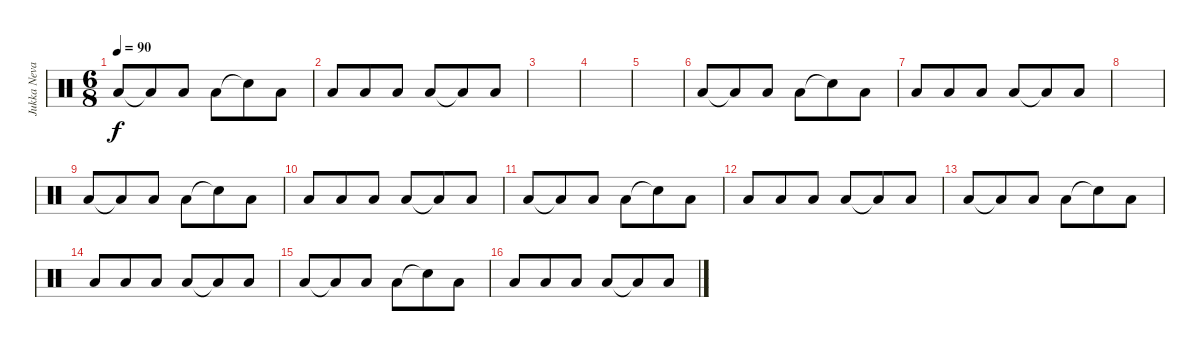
\track ("Jukka Nevalainen" "Jukka Neva") {instrument percussion}
\staff {score}
\articulation defaults
\ts (6 8)
\tempo 90
\clef neutral
\ks c "Low Floor Tom (hit)".8{dy f} "Low Floor Tom (hit)"{t}.8 "Low Floor Tom (hit)".8 "Low Floor Tom (hit)".8 "Snare (hit)"{t}.8 "Low Floor Tom (hit)".8
|
"Low Floor Tom (hit)".8 "Low Floor Tom (hit)".8 "Low Floor Tom (hit)".8 "Low Floor Tom (hit)".8 "Low Floor Tom (hit)"{t}.8 "Low Floor Tom (hit)".8 |
|
|
|
"Low Floor Tom (hit)".8 "Low Floor Tom (hit)"{t}.8 "Low Floor Tom (hit)".8 "Low Floor Tom (hit)".8 "Snare (hit)"{t}.8 "Low Floor Tom (hit)".8 |
"Low Floor Tom (hit)".8 "Low Floor Tom (hit)".8 "Low Floor Tom (hit)".8 "Low Floor Tom (hit)".8 "Low Floor Tom (hit)"{t}.8 "Low Floor Tom (hit)".8 |
|
"Low Floor Tom (hit)".8 "Low Floor Tom (hit)"{t}.8 "Low Floor Tom (hit)".8 "Low Floor Tom (hit)".8 "Snare (hit)"{t}.8 "Low Floor Tom (hit)".8 |
"Low Floor Tom (hit)".8 "Low Floor Tom (hit)".8 "Low Floor Tom (hit)".8 "Low Floor Tom (hit)".8 "Low Floor Tom (hit)"{t}.8 "Low Floor Tom (hit)".8 |
"Low Floor Tom (hit)".8 "Low Floor Tom (hit)"{t}.8 "Low Floor Tom (hit)".8 "Low Floor Tom (hit)".8 "Snare (hit)"{t}.8 "Low Floor Tom (hit)".8 |
"Low Floor Tom (hit)".8 "Low Floor Tom (hit)".8 "Low Floor Tom (hit)".8 "Low Floor Tom (hit)".8 "Low Floor Tom (hit)"{t}.8 "Low Floor Tom (hit)".8 |
"Low Floor Tom (hit)".8 "Low Floor Tom (hit)"{t}.8 "Low Floor Tom (hit)".8 "Low Floor Tom (hit)".8 "Snare (hit)"{t}.8 "Low Floor Tom (hit)".8 |
"Low Floor Tom (hit)".8 "Low Floor Tom (hit)".8 "Low Floor Tom (hit)".8 "Low Floor Tom (hit)".8 "Low Floor Tom (hit)"{t}.8 "Low Floor Tom (hit)".8 |
"Low Floor Tom (hit)".8 "Low Floor Tom (hit)"{t}.8 "Low Floor Tom (hit)".8 "Low Floor Tom (hit)".8 "Snare (hit)"{t}.8 "Low Floor Tom (hit)".8 |
"Low Floor Tom (hit)".8 "Low Floor Tom (hit)".8 "Low Floor Tom (hit)".8 "Low Floor Tom (hit)".8 "Low Floor Tom (hit)"{t}.8 "Low Floor Tom (hit)".8
